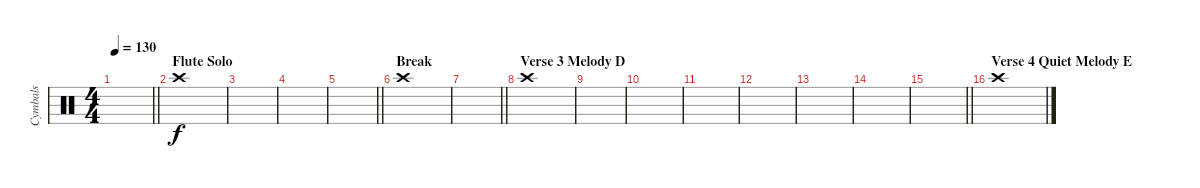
\track ("Cymbals" "Cymbals") {instrument percussion}
\staff {score}
\articulation defaults
\ts (4 4)
\tempo 130
\clef neutral
\barLineRight lightlight
\ks c
|
\section ("" "Flute Solo ")
"Crash high (hit)".1 |
|
|
\barLineRight lightlight
|
\section ("" "Break")
"Crash high (hit)".1 |
\barLineRight lightlight
|
\section ("" "Verse 3 Melody D")
"Crash high (hit)".1 |
|
|
|
|
|
|
\barLineRight lightlight
|
\section ("" "Verse 4 Quiet Melody E")
"Crash high (hit)".1
